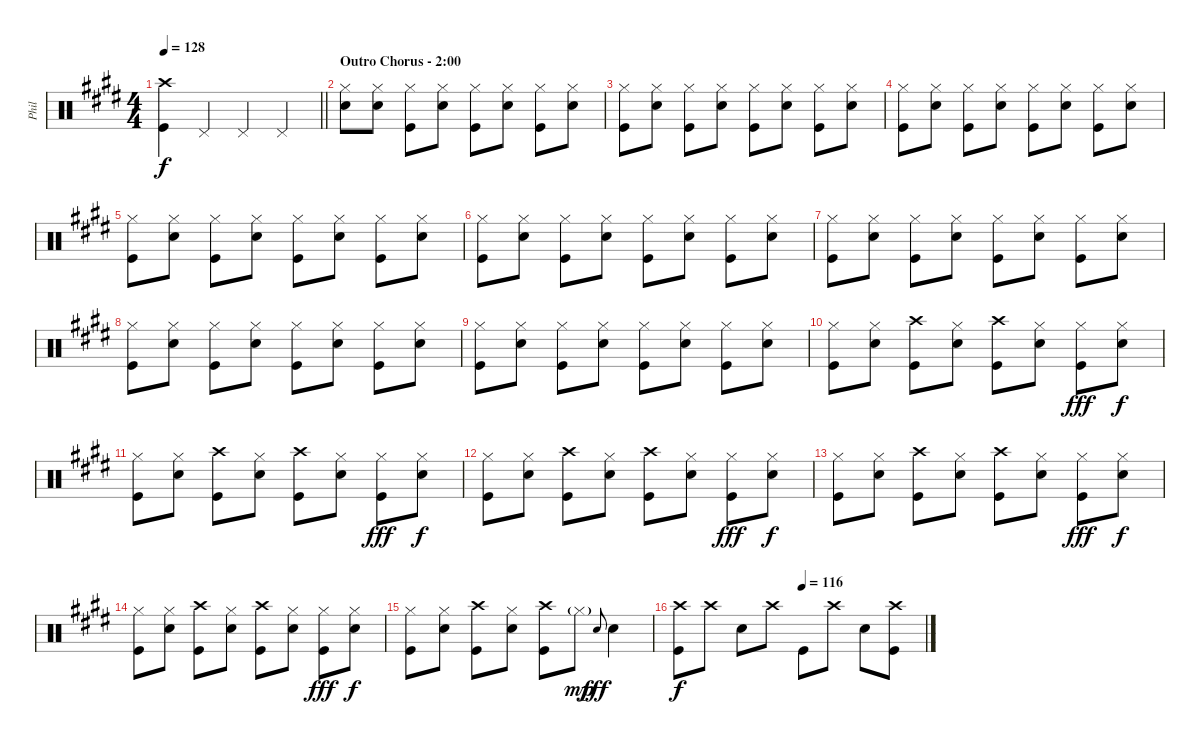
\track ("Phil" "Phil") {instrument percussion}
\staff {score}
\articulation defaults
\ts (4 4)
\tempo 128
\clef neutral
\barLineRight lightlight
\ks e
("Crash high (hit)"{t} "Kick (hit)"{t}).4{dy f} "Pedal Hi-Hat (hit)".4 "Pedal Hi-Hat (hit)".4 "Pedal Hi-Hat (hit)".4 |
\section ("" "Outro Chorus - 2:00")
("Hi-Hat (closed)" "Electric Snare (hit)").8 ("Hi-Hat (closed)" "Electric Snare (hit)").8 ("Hi-Hat (closed)" "Kick (hit)").8 ("Hi-Hat (closed)" "Electric Snare (hit)").8 ("Hi-Hat (closed)" "Kick (hit)").8 ("Hi-Hat (closed)" "Electric Snare (hit)").8 ("Hi-Hat (closed)" "Kick (hit)").8 ("Hi-Hat (closed)" "Electric Snare (hit)").8 |
("Hi-Hat (closed)" "Kick (hit)").8 ("Hi-Hat (closed)" "Electric Snare (hit)").8 ("Hi-Hat (closed)" "Kick (hit)").8 ("Hi-Hat (closed)" "Electric Snare (hit)").8 ("Hi-Hat (closed)" "Kick (hit)").8 ("Hi-Hat (closed)" "Electric Snare (hit)").8 ("Hi-Hat (closed)" "Kick (hit)").8 ("Hi-Hat (closed)" "Electric Snare (hit)").8 |
("Hi-Hat (closed)" "Kick (hit)").8 ("Hi-Hat (closed)" "Electric Snare (hit)").8 ("Hi-Hat (closed)" "Kick (hit)").8 ("Hi-Hat (closed)" "Electric Snare (hit)").8 ("Hi-Hat (closed)" "Kick (hit)").8 ("Hi-Hat (closed)" "Electric Snare (hit)").8 ("Hi-Hat (closed)" "Kick (hit)").8 ("Hi-Hat (closed)" "Electric Snare (hit)").8 |
("Hi-Hat (closed)" "Kick (hit)").8 ("Hi-Hat (closed)" "Electric Snare (hit)").8 ("Hi-Hat (closed)" "Kick (hit)").8 ("Hi-Hat (closed)" "Electric Snare (hit)").8 ("Hi-Hat (closed)" "Kick (hit)").8 ("Hi-Hat (closed)" "Electric Snare (hit)").8 ("Hi-Hat (closed)" "Kick (hit)").8 ("Hi-Hat (closed)" "Electric Snare (hit)").8 |
("Hi-Hat (closed)" "Kick (hit)").8 ("Hi-Hat (closed)" "Electric Snare (hit)").8 ("Hi-Hat (closed)" "Kick (hit)").8 ("Hi-Hat (closed)" "Electric Snare (hit)").8 ("Hi-Hat (closed)" "Kick (hit)").8 ("Hi-Hat (closed)" "Electric Snare (hit)").8 ("Hi-Hat (closed)" "Kick (hit)").8 ("Hi-Hat (closed)" "Electric Snare (hit)").8 |
("Hi-Hat (closed)" "Kick (hit)").8 ("Hi-Hat (closed)" "Electric Snare (hit)").8 ("Hi-Hat (closed)" "Kick (hit)").8 ("Hi-Hat (closed)" "Electric Snare (hit)").8 ("Hi-Hat (closed)" "Kick (hit)").8 ("Hi-Hat (closed)" "Electric Snare (hit)").8 ("Hi-Hat (closed)" "Kick (hit)").8 ("Hi-Hat (closed)" "Electric Snare (hit)").8 |
("Hi-Hat (closed)" "Kick (hit)").8 ("Hi-Hat (closed)" "Electric Snare (hit)").8 ("Hi-Hat (closed)" "Kick (hit)").8 ("Hi-Hat (closed)" "Electric Snare (hit)").8 ("Hi-Hat (closed)" "Kick (hit)").8 ("Hi-Hat (closed)" "Electric Snare (hit)").8 ("Hi-Hat (closed)" "Kick (hit)").8 ("Hi-Hat (closed)" "Electric Snare (hit)").8 |
("Hi-Hat (closed)" "Kick (hit)").8 ("Hi-Hat (closed)" "Electric Snare (hit)").8 ("Hi-Hat (closed)" "Kick (hit)").8 ("Hi-Hat (closed)" "Electric Snare (hit)").8 ("Hi-Hat (closed)" "Kick (hit)").8 ("Hi-Hat (closed)" "Electric Snare (hit)").8 ("Hi-Hat (closed)" "Kick (hit)").8 ("Hi-Hat (closed)" "Electric Snare (hit)").8 |
("Hi-Hat (closed)" "Kick (hit)").8 ("Hi-Hat (closed)" "Electric Snare (hit)").8 ("Crash high (hit)" "Kick (hit)").8 ("Hi-Hat (closed)" "Electric Snare (hit)").8 ("Crash high (hit)" "Kick (hit)").8 ("Hi-Hat (closed)" "Electric Snare (hit)").8 ("Hi-Hat (closed)" "Kick (hit)").8{dy fff} ("Hi-Hat (closed)" "Electric Snare (hit)").8{dy f} |
("Hi-Hat (closed)" "Kick (hit)").8 ("Hi-Hat (closed)" "Electric Snare (hit)").8 ("Crash high (hit)" "Kick (hit)").8 ("Hi-Hat (closed)" "Electric Snare (hit)").8 ("Crash high (hit)" "Kick (hit)").8 ("Hi-Hat (closed)" "Electric Snare (hit)").8 ("Hi-Hat (closed)" "Kick (hit)").8{dy fff} ("Hi-Hat (closed)" "Electric Snare (hit)").8{dy f} |
("Hi-Hat (closed)" "Kick (hit)").8 ("Hi-Hat (closed)" "Electric Snare (hit)").8 ("Crash high (hit)" "Kick (hit)").8 ("Hi-Hat (closed)" "Electric Snare (hit)").8 ("Crash high (hit)" "Kick (hit)").8 ("Hi-Hat (closed)" "Electric Snare (hit)").8 ("Hi-Hat (closed)" "Kick (hit)").8{dy fff} ("Hi-Hat (closed)" "Electric Snare (hit)").8{dy f} |
("Hi-Hat (closed)" "Kick (hit)").8 ("Hi-Hat (closed)" "Electric Snare (hit)").8 ("Crash high (hit)" "Kick (hit)").8 ("Hi-Hat (closed)" "Electric Snare (hit)").8 ("Crash high (hit)" "Kick (hit)").8 ("Hi-Hat (closed)" "Electric Snare (hit)").8 ("Hi-Hat (closed)" "Kick (hit)").8{dy fff} ("Hi-Hat (closed)" "Electric Snare (hit)").8{dy f} |
("Hi-Hat (closed)" "Kick (hit)").8 ("Hi-Hat (closed)" "Electric Snare (hit)").8 ("Crash high (hit)" "Kick (hit)").8 ("Hi-Hat (closed)" "Electric Snare (hit)").8 ("Crash high (hit)" "Kick (hit)").8 ("Hi-Hat (closed)" "Electric Snare (hit)").8 ("Hi-Hat (closed)" "Kick (hit)").8{dy fff} ("Hi-Hat (closed)" "Electric Snare (hit)").8{dy f} |
("Hi-Hat (closed)" "Kick (hit)").8 ("Hi-Hat (closed)" "Electric Snare (hit)").8 ("Crash high (hit)" "Kick (hit)").8 ("Hi-Hat (closed)" "Electric Snare (hit)").8 ("Crash high (hit)" "Kick (hit)").8 "Hi-Hat (closed)"{g}.8{dy mp} "Electric Snare (hit)".8{gr onbeat dy fff} "Electric Snare (hit)".4 |
\tempo (116 0.5)
("Crash high (hit)" "Kick (hit)").8{dy f} "Crash high (hit)".8 "Electric Snare (hit)".8 "Crash high (hit)".8 "Kick (hit)".8 "Crash high (hit)".8 "Electric Snare (hit)".8 ("Crash high (hit)" "Kick (hit)").8
